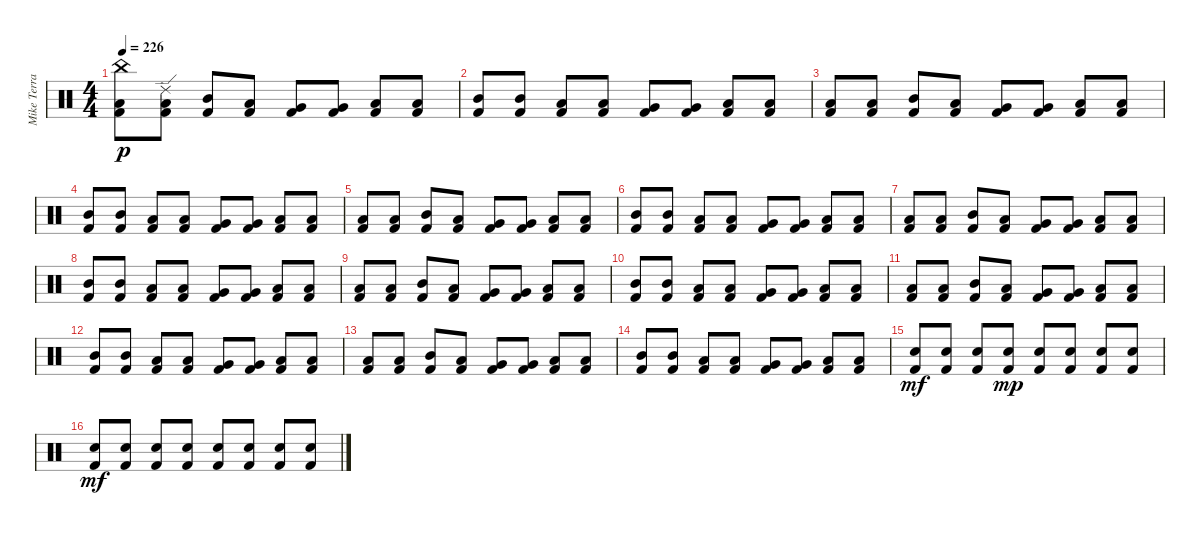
\track ("Mike Terrana" "Mike Terra") {instrument percussion}
\staff {score}
\articulation defaults
\ts (4 4)
\tempo 226
\clef neutral
\ks c
("China (hit)" "Low Tom (hit)" "Kick (hit) 2").8{dy p} ("Ride (edge) 2" "Low Tom (hit)" "Kick (hit) 2").8 ("Mid Tom (hit)" "Kick (hit) 2").8 ("Low Tom (hit)" "Kick (hit) 2").8 ("Very Low Tom (hit)" "Kick (hit) 2").8 ("Very Low Tom (hit)" "Kick (hit) 2").8 ("Low Tom (hit)" "Kick (hit) 2").8 ("Low Tom (hit)" "Kick (hit) 2").8 |
("Mid Tom (hit)" "Kick (hit) 2").8 ("Mid Tom (hit)" "Kick (hit) 2").8 ("Low Tom (hit)" "Kick (hit) 2").8 ("Low Tom (hit)" "Kick (hit) 2").8 ("Very Low Tom (hit)" "Kick (hit) 2").8 ("Very Low Tom (hit)" "Kick (hit) 2").8 ("Low Tom (hit)" "Kick (hit) 2").8 ("Low Tom (hit)" "Kick (hit) 2").8 |
("Low Tom (hit)" "Kick (hit) 2").8 ("Low Tom (hit)" "Kick (hit) 2").8 ("Mid Tom (hit)" "Kick (hit) 2").8 ("Low Tom (hit)" "Kick (hit) 2").8 ("Very Low Tom (hit)" "Kick (hit) 2").8 ("Very Low Tom (hit)" "Kick (hit) 2").8 ("Low Tom (hit)" "Kick (hit) 2").8 ("Low Tom (hit)" "Kick (hit) 2").8 |
("Mid Tom (hit)" "Kick (hit) 2").8 ("Mid Tom (hit)" "Kick (hit) 2").8 ("Low Tom (hit)" "Kick (hit) 2").8 ("Low Tom (hit)" "Kick (hit) 2").8 ("Very Low Tom (hit)" "Kick (hit) 2").8 ("Very Low Tom (hit)" "Kick (hit) 2").8 ("Low Tom (hit)" "Kick (hit) 2").8 ("Low Tom (hit)" "Kick (hit) 2").8 |
("Low Tom (hit)" "Kick (hit) 2").8 ("Low Tom (hit)" "Kick (hit) 2").8 ("Mid Tom (hit)" "Kick (hit) 2").8 ("Low Tom (hit)" "Kick (hit) 2").8 ("Very Low Tom (hit)" "Kick (hit) 2").8 ("Very Low Tom (hit)" "Kick (hit) 2").8 ("Low Tom (hit)" "Kick (hit) 2").8 ("Low Tom (hit)" "Kick (hit) 2").8 |
("Mid Tom (hit)" "Kick (hit) 2").8 ("Mid Tom (hit)" "Kick (hit) 2").8 ("Low Tom (hit)" "Kick (hit) 2").8 ("Low Tom (hit)" "Kick (hit) 2").8 ("Very Low Tom (hit)" "Kick (hit) 2").8 ("Very Low Tom (hit)" "Kick (hit) 2").8 ("Low Tom (hit)" "Kick (hit) 2").8 ("Low Tom (hit)" "Kick (hit) 2").8 |
("Low Tom (hit)" "Kick (hit) 2").8 ("Low Tom (hit)" "Kick (hit) 2").8 ("Mid Tom (hit)" "Kick (hit) 2").8 ("Low Tom (hit)" "Kick (hit) 2").8 ("Very Low Tom (hit)" "Kick (hit) 2").8 ("Very Low Tom (hit)" "Kick (hit) 2").8 ("Low Tom (hit)" "Kick (hit) 2").8 ("Low Tom (hit)" "Kick (hit) 2").8 |
("Mid Tom (hit)" "Kick (hit) 2").8 ("Mid Tom (hit)" "Kick (hit) 2").8 ("Low Tom (hit)" "Kick (hit) 2").8 ("Low Tom (hit)" "Kick (hit) 2").8 ("Very Low Tom (hit)" "Kick (hit) 2").8 ("Very Low Tom (hit)" "Kick (hit) 2").8 ("Low Tom (hit)" "Kick (hit) 2").8 ("Low Tom (hit)" "Kick (hit) 2").8 |
("Low Tom (hit)" "Kick (hit) 2").8 ("Low Tom (hit)" "Kick (hit) 2").8 ("Mid Tom (hit)" "Kick (hit) 2").8 ("Low Tom (hit)" "Kick (hit) 2").8 ("Very Low Tom (hit)" "Kick (hit) 2").8 ("Very Low Tom (hit)" "Kick (hit) 2").8 ("Low Tom (hit)" "Kick (hit) 2").8 ("Low Tom (hit)" "Kick (hit) 2").8 |
("Mid Tom (hit)" "Kick (hit) 2").8 ("Mid Tom (hit)" "Kick (hit) 2").8 ("Low Tom (hit)" "Kick (hit) 2").8 ("Low Tom (hit)" "Kick (hit) 2").8 ("Very Low Tom (hit)" "Kick (hit) 2").8 ("Very Low Tom (hit)" "Kick (hit) 2").8 ("Low Tom (hit)" "Kick (hit) 2").8 ("Low Tom (hit)" "Kick (hit) 2").8 |
("Low Tom (hit)" "Kick (hit) 2").8 ("Low Tom (hit)" "Kick (hit) 2").8 ("Mid Tom (hit)" "Kick (hit) 2").8 ("Low Tom (hit)" "Kick (hit) 2").8 ("Very Low Tom (hit)" "Kick (hit) 2").8 ("Very Low Tom (hit)" "Kick (hit) 2").8 ("Low Tom (hit)" "Kick (hit) 2").8 ("Low Tom (hit)" "Kick (hit) 2").8 |
("Mid Tom (hit)" "Kick (hit) 2").8 ("Mid Tom (hit)" "Kick (hit) 2").8 ("Low Tom (hit)" "Kick (hit) 2").8 ("Low Tom (hit)" "Kick (hit) 2").8 ("Very Low Tom (hit)" "Kick (hit) 2").8 ("Very Low Tom (hit)" "Kick (hit) 2").8 ("Low Tom (hit)" "Kick (hit) 2").8 ("Low Tom (hit)" "Kick (hit) 2").8 |
("Low Tom (hit)" "Kick (hit) 2").8 ("Low Tom (hit)" "Kick (hit) 2").8 ("Mid Tom (hit)" "Kick (hit) 2").8 ("Low Tom (hit)" "Kick (hit) 2").8 ("Very Low Tom (hit)" "Kick (hit) 2").8 ("Very Low Tom (hit)" "Kick (hit) 2").8 ("Low Tom (hit)" "Kick (hit) 2").8 ("Low Tom (hit)" "Kick (hit) 2").8 |
("Mid Tom (hit)" "Kick (hit) 2").8 ("Mid Tom (hit)" "Kick (hit) 2").8 ("Low Tom (hit)" "Kick (hit) 2").8 ("Low Tom (hit)" "Kick (hit) 2").8 ("Very Low Tom (hit)" "Kick (hit) 2").8 ("Very Low Tom (hit)" "Kick (hit) 2").8 ("Low Tom (hit)" "Kick (hit) 2").8 ("Low Tom (hit)" "Kick (hit) 2").8 |
("Snare (hit) 2" "Kick (hit) 2").8{dy mf} ("Snare (hit) 2" "Kick (hit) 2").8 ("Snare (hit) 2" "Kick (hit) 2").8 ("Snare (hit) 2" "Kick (hit) 2").8{dy mp} ("Snare (hit) 2" "Kick (hit) 2").8 ("Snare (hit) 2" "Kick (hit) 2").8 ("Snare (hit) 2" "Kick (hit) 2").8 ("Snare (hit) 2" "Kick (hit) 2").8 |
("Snare (hit) 2" "Kick (hit) 2").8{dy mf} ("Snare (hit) 2" "Kick (hit) 2").8 ("Snare (hit) 2" "Kick (hit) 2").8 ("Snare (hit) 2" "Kick (hit) 2").8 ("Snare (hit) 2" "Kick (hit) 2").8 ("Snare (hit) 2" "Kick (hit) 2").8 ("Snare (hit) 2" "Kick (hit) 2").8 ("Snare (hit) 2" "Kick (hit) 2").8
